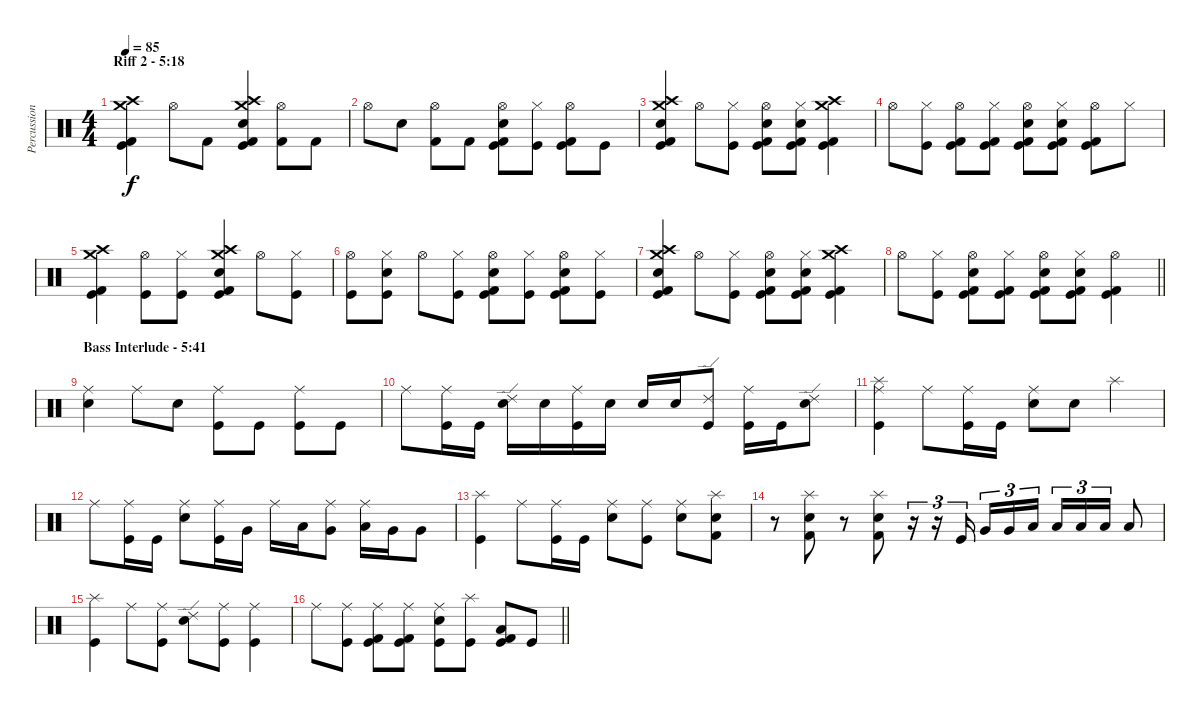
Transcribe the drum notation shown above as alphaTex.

\track ("Percussion" "Percussion") {instrument percussion}
\staff {score}
\articulation defaults
\ts (4 4)
\section ("" "Riff 2 - 5:18")
\tempo 85
\clef neutral
\ks c
("Kick (hit)" "Kick (hit) 2" "Crash high (hit)" "Crash medium (hit)").4{dy f} "Hi-Hat (open)".8 "Kick (hit) 2".8 ("Kick (hit)" "Kick (hit) 2" "Snare (hit) 2" "Crash high (hit)" "Crash medium (hit)").4 ("Kick (hit) 2" "Hi-Hat (open)").8 "Kick (hit) 2".8 |
"Hi-Hat (open)".8 "Snare (hit) 2".8 ("Kick (hit) 2" "Hi-Hat (open)").8 "Kick (hit) 2".8 ("Kick (hit)" "Kick (hit) 2" "Snare (hit) 2" "Hi-Hat (open)").8 ("Kick (hit)" "Hi-Hat (closed)").8 ("Kick (hit)" "Kick (hit) 2" "Hi-Hat (open)").8 "Kick (hit)".8 |
("Kick (hit)" "Kick (hit) 2" "Snare (hit) 2" "Crash high (hit)" "Crash medium (hit)").4 "Hi-Hat (open)".8 ("Kick (hit)" "Hi-Hat (closed)").8 ("Kick (hit)" "Kick (hit) 2" "Snare (hit) 2" "Hi-Hat (open)").8 ("Kick (hit)" "Kick (hit) 2" "Snare (hit) 2" "Hi-Hat (closed)").8 ("Kick (hit)" "Kick (hit) 2" "Crash high (hit)" "Crash medium (hit)").4 |
"Hi-Hat (open)".8 ("Kick (hit)" "Hi-Hat (closed)").8 ("Kick (hit)" "Kick (hit) 2" "Hi-Hat (open)").8 ("Kick (hit)" "Kick (hit) 2" "Hi-Hat (closed)").8 ("Kick (hit)" "Kick (hit) 2" "Snare (hit) 2" "Hi-Hat (open)").8 ("Kick (hit)" "Kick (hit) 2" "Snare (hit) 2" "Hi-Hat (closed)").8 ("Kick (hit)" "Kick (hit) 2" "Hi-Hat (open)").8 "Hi-Hat (closed)".8 |
("Kick (hit)" "Kick (hit) 2" "Crash high (hit)" "Crash medium (hit)").4 ("Kick (hit)" "Hi-Hat (open)").8 ("Kick (hit)" "Hi-Hat (closed)").8 ("Kick (hit)" "Kick (hit) 2" "Snare (hit) 2" "Crash high (hit)" "Crash medium (hit)").4 "Hi-Hat (open)".8 ("Kick (hit)" "Hi-Hat (closed)").8 |
("Kick (hit)" "Hi-Hat (open)").8 ("Kick (hit)" "Snare (hit) 2" "Hi-Hat (closed)").8 "Hi-Hat (open)".8 ("Kick (hit)" "Hi-Hat (closed)").8 ("Kick (hit)" "Kick (hit) 2" "Snare (hit) 2" "Hi-Hat (open)").8 ("Kick (hit)" "Hi-Hat (closed)").8 ("Kick (hit)" "Kick (hit) 2" "Snare (hit) 2" "Hi-Hat (open)").8 ("Kick (hit)" "Hi-Hat (closed)").8 |
("Kick (hit)" "Kick (hit) 2" "Snare (hit) 2" "Crash high (hit)" "Crash medium (hit)").4 "Hi-Hat (open)".8 ("Kick (hit)" "Hi-Hat (closed)").8 ("Kick (hit)" "Kick (hit) 2" "Snare (hit) 2" "Hi-Hat (open)").8 ("Kick (hit)" "Kick (hit) 2" "Snare (hit) 2" "Hi-Hat (closed)").8 ("Kick (hit)" "Kick (hit) 2" "Crash high (hit)" "Crash medium (hit)").4 |
\barLineRight lightlight "Hi-Hat (open)".8
("Kick (hit)" "Hi-Hat (closed)").8 ("Kick (hit)" "Kick (hit) 2" "Snare (hit) 2" "Hi-Hat (open)").8 ("Kick (hit)" "Kick (hit) 2" "Hi-Hat (closed)").8 ("Kick (hit)" "Kick (hit) 2" "Snare (hit) 2" "Hi-Hat (open)").8 ("Kick (hit)" "Kick (hit) 2" "Snare (hit) 2" "Hi-Hat (closed)").8 ("Kick (hit)" "Kick (hit) 2" "Hi-Hat (open)").4 |
\section ("" "Bass Interlude - 5:41")
("Snare (hit) 2" "Ride (middle)").4 "Ride (middle)".8 "Snare (hit) 2".8 ("Kick (hit)" "Ride (middle)").8 "Kick (hit)".8 ("Kick (hit)" "Ride (middle)").8 "Kick (hit)".8 |
"Ride (middle)".8 ("Kick (hit)" "Ride (middle)").16 "Kick (hit)".16 ("Snare (hit) 2" "Ride (edge) 2").16 "Snare (hit) 2".16 ("Kick (hit)" "Ride (middle)").16 "Snare (hit) 2".16 "Snare (hit) 2".16 "Snare (hit) 2".16 ("Kick (hit)" "Ride (edge) 2").8 ("Kick (hit)" "Ride (middle)").16 "Kick (hit)".16 ("Snare (hit) 2" "Ride (edge) 2").8 |
("Kick (hit)" "Splash (hit)" "Ride (middle)").4 "Ride (middle)".8 ("Kick (hit)" "Ride (middle)").16 "Kick (hit)".16 ("Snare (hit) 2" "Ride (middle)").8 "Snare (hit) 2".8 "Splash (hit)".4 |
"Ride (middle)".8 ("Kick (hit)" "Ride (middle)").16 "Kick (hit)".16 ("Snare (hit) 2" "Ride (middle)").8 ("Kick (hit)" "Ride (middle)").16 "Very Low Tom (hit)".16 "Ride (middle)".16 "Low Floor Tom (hit)".16 ("Very Low Tom (hit)" "Ride (middle)").8 ("Low Floor Tom (hit)" "Ride (middle)").16 "Very Low Tom (hit)".16 "Very Low Tom (hit)".8 |
("Kick (hit)" "Splash (hit)").4 "Ride (middle)".8 ("Kick (hit)" "Ride (middle)").16 "Kick (hit)".16 ("Snare (hit) 2" "Ride (middle)").8 ("Kick (hit)" "Ride (middle)").8 ("Snare (hit) 2" "Ride (middle)").8 ("Kick (hit) 2" "Snare (hit) 2" "Splash (hit)").8 |
r.8 ("Kick (hit) 2" "Snare (hit) 2" "Splash (hit)").8 r.8 ("Kick (hit) 2" "Snare (hit) 2" "Splash (hit)").8 r.16{tu (3 2)} r.16{tu (3 2)} "Kick (hit)".16{tu (3 2) beam splitsecondary} "Very Low Tom (hit)".16{tu (3 2)} "Very Low Tom (hit)".16{tu (3 2)} "Low Tom (hit)".16{tu (3 2)} "Low Tom (hit)".16{tu (3 2)} "Low Floor Tom (hit)".16{tu (3 2)} "Low Floor Tom (hit)".16{tu (3 2)} "Low Floor Tom (hit)".8 |
("Kick (hit)" "Splash (hit)").4 "Ride (middle)".8 ("Kick (hit)" "Ride (middle)").8 ("Snare (hit) 2" "Ride (edge) 2").8 ("Kick (hit)" "Ride (middle)").8 ("Kick (hit)" "Ride (middle)").4 |
\barLineRight lightlight "Ride (middle)".8
("Kick (hit)" "Ride (middle)").8 ("Kick (hit)" "Kick (hit) 2" "Ride (middle)").8 ("Kick (hit)" "Kick (hit) 2" "Ride (middle)").8 ("Kick (hit)" "Snare (hit) 2" "Ride (middle)").8 ("Kick (hit)" "Splash (hit)").8 ("Kick (hit)" "Kick (hit) 2" "Low Tom (hit)").8 "Kick (hit)".8
